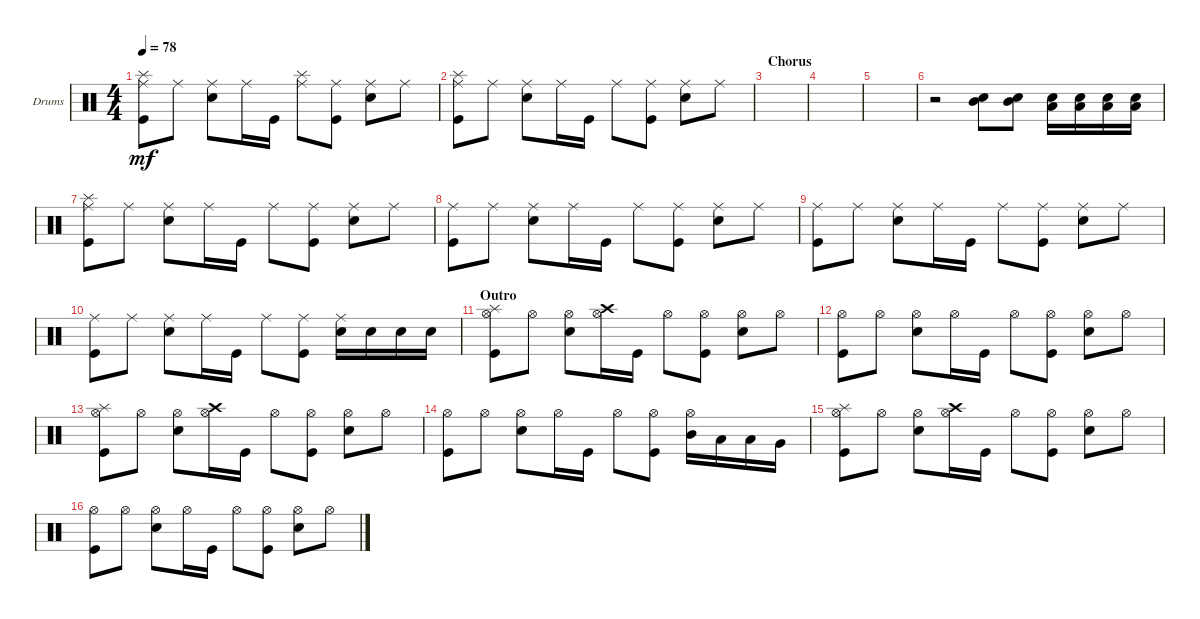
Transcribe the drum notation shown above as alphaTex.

\defaultSystemsLayout 4
\bracketExtendMode groupsimilarinstruments
\firstSystemTrackNameOrientation horizontal
\otherSystemsTrackNameOrientation horizontal
\track ("Drumkit" "Drums") {instrument percussion}
\staff {score}
\articulation defaults
\ts (4 4)
\tempo 78
\clef neutral
\ks c
("Kick (hit)" "Ride (middle)" "Splash (hit)").8{dy mf} "Ride (middle)".8 ("Snare (hit) 2" "Ride (middle)").8 "Ride (middle)".16 "Kick (hit)".16 ("Ride (middle)" "Splash (hit)").8 ("Kick (hit)" "Ride (middle)").8 ("Snare (hit) 2" "Ride (middle)").8 "Ride (middle)".8 |
("Kick (hit)" "Ride (middle)" "Splash (hit)").8 "Ride (middle)".8 ("Snare (hit) 2" "Ride (middle)").8 "Ride (middle)".16 "Kick (hit)".16 "Ride (middle)".8 ("Kick (hit)" "Ride (middle)").8 ("Snare (hit) 2" "Ride (middle)").8 "Ride (middle)".8 |
\section ("" "Chorus")
|
|
|
r.2 ("Snare (hit) 2" "Mid Tom (hit)").8 ("Snare (hit) 2" "Mid Tom (hit)").8 ("Snare (hit) 2" "Low Tom (hit)").16 ("Snare (hit) 2" "Low Tom (hit)").16 ("Snare (hit) 2" "Low Tom (hit)").16 ("Snare (hit) 2" "Low Tom (hit)").16 |
\scale
0.314118 ("Kick (hit)" "Splash (hit)" "Ride (middle)").8 "Ride (middle)".8 ("Snare (hit) 2" "Ride (middle)").8 "Ride (middle)".16 "Kick (hit)".16 "Ride (middle)".8 ("Kick (hit)" "Ride (middle)").8 ("Snare (hit) 2" "Ride (middle)").8 "Ride (middle)".8 |
\scale
0.243644 ("Kick (hit)" "Ride (middle)").8 "Ride (middle)".8 ("Snare (hit) 2" "Ride (middle)").8 "Ride (middle)".16 "Kick (hit)".16 "Ride (middle)".8 ("Kick (hit)" "Ride (middle)").8 ("Snare (hit) 2" "Ride (middle)").8 "Ride (middle)".8 |
\scale
0.195467 ("Kick (hit)" "Ride (middle)").8 "Ride (middle)".8 ("Snare (hit) 2" "Ride (middle)").8 "Ride (middle)".16 "Kick (hit)".16 "Ride (middle)".8 ("Kick (hit)" "Ride (middle)").8 ("Snare (hit) 2" "Ride (middle)").8 "Ride (middle)".8 |
("Kick (hit)" "Ride (middle)").8 "Ride (middle)".8 ("Snare (hit) 2" "Ride (middle)").8 "Ride (middle)".16 "Kick (hit)".16 "Ride (middle)".8 ("Kick (hit)" "Ride (middle)").8 ("Snare (hit) 2" "Ride (middle)").16 "Snare (hit) 2".16 "Snare (hit) 2".16 "Snare (hit) 2".16 |
\section ("" "Outro")
("Kick (hit)" "Hi-Hat (open)" "Splash (hit)").8 "Hi-Hat (open)".8 ("Hi-Hat (open)" "Snare (hit) 2").8 ("Hi-Hat (open)" "Crash high (hit)").16 "Kick (hit)".16 "Hi-Hat (open)".8 ("Kick (hit)" "Hi-Hat (open)").8 ("Hi-Hat (open)" "Snare (hit) 2").8 "Hi-Hat (open)".8 |
("Kick (hit)" "Hi-Hat (open)").8 "Hi-Hat (open)".8 ("Hi-Hat (open)" "Snare (hit) 2").8 "Hi-Hat (open)".16 "Kick (hit)".16 "Hi-Hat (open)".8 ("Kick (hit)" "Hi-Hat (open)").8 ("Hi-Hat (open)" "Snare (hit) 2").8 "Hi-Hat (open)".8 |
("Kick (hit)" "Hi-Hat (open)" "Splash (hit)").8 "Hi-Hat (open)".8 ("Hi-Hat (open)" "Snare (hit) 2").8 ("Hi-Hat (open)" "Crash high (hit)").16 "Kick (hit)".16 "Hi-Hat (open)".8 ("Kick (hit)" "Hi-Hat (open)").8 ("Hi-Hat (open)" "Snare (hit) 2").8 "Hi-Hat (open)".8 |
("Kick (hit)" "Hi-Hat (open)").8 "Hi-Hat (open)".8 ("Hi-Hat (open)" "Snare (hit) 2").8 "Hi-Hat (open)".16 "Kick (hit)".16 "Hi-Hat (open)".8 ("Kick (hit)" "Hi-Hat (open)").8 ("Mid Tom (hit)" "Hi-Hat (open)").16 "Low Tom (hit)".16 "Low Tom (hit)".16 "Very Low Tom (hit)".16 |
("Kick (hit)" "Hi-Hat (open)" "Splash (hit)").8 "Hi-Hat (open)".8 ("Hi-Hat (open)" "Snare (hit) 2").8 ("Hi-Hat (open)" "Crash high (hit)").16 "Kick (hit)".16 "Hi-Hat (open)".8 ("Kick (hit)" "Hi-Hat (open)").8 ("Hi-Hat (open)" "Snare (hit) 2").8 "Hi-Hat (open)".8 |
("Kick (hit)" "Hi-Hat (open)").8 "Hi-Hat (open)".8 ("Hi-Hat (open)" "Snare (hit) 2").8 "Hi-Hat (open)".16 "Kick (hit)".16 "Hi-Hat (open)".8 ("Kick (hit)" "Hi-Hat (open)").8 ("Hi-Hat (open)" "Snare (hit) 2").8 "Hi-Hat (open)".8
